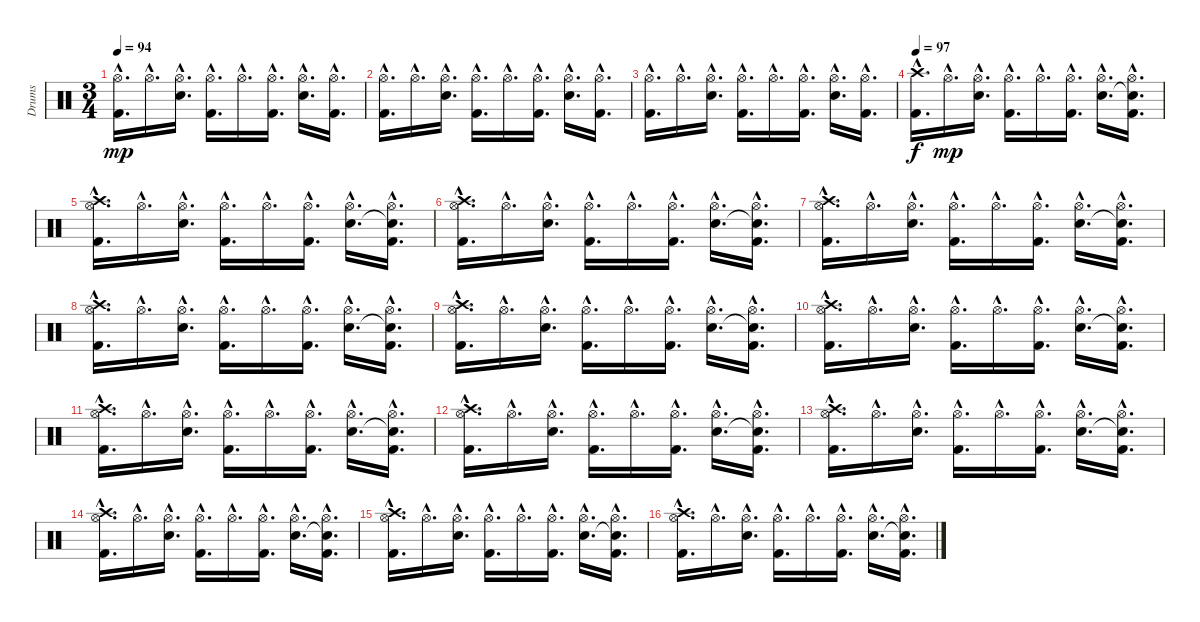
\track ("Drums" "Drums") {instrument percussion}
\staff {score}
\articulation defaults
\ts (3 4)
\tempo 94
\clef neutral
\ks c
("Hi-Hat (open)"{hac} "Kick (hit) 2"{hac}).16{d dy mp} "Hi-Hat (open)"{hac}.16{d} ("Hi-Hat (open)"{hac} "Electric Snare (hit)"{hac}).16{d} ("Hi-Hat (open)"{hac} "Kick (hit) 2"{hac}).16{d} "Hi-Hat (open)"{hac}.16{d} ("Hi-Hat (open)"{hac} "Kick (hit) 2"{hac}).16{d} ("Hi-Hat (open)"{hac} "Electric Snare (hit)"{hac}).16{d} ("Hi-Hat (open)"{hac} "Kick (hit) 2"{hac}).16{d} |
("Hi-Hat (open)"{hac} "Kick (hit) 2"{hac}).16{d} "Hi-Hat (open)"{hac}.16{d} ("Hi-Hat (open)"{hac} "Electric Snare (hit)"{hac}).16{d} ("Hi-Hat (open)"{hac} "Kick (hit) 2"{hac}).16{d} "Hi-Hat (open)"{hac}.16{d} ("Hi-Hat (open)"{hac} "Kick (hit) 2"{hac}).16{d} ("Hi-Hat (open)"{hac} "Electric Snare (hit)"{hac}).16{d} ("Hi-Hat (open)"{hac} "Kick (hit) 2"{hac}).16{d} |
("Hi-Hat (open)"{hac} "Kick (hit) 2"{hac}).16{d} "Hi-Hat (open)"{hac}.16{d} ("Hi-Hat (open)"{hac} "Electric Snare (hit)"{hac}).16{d} ("Hi-Hat (open)"{hac} "Kick (hit) 2"{hac}).16{d} "Hi-Hat (open)"{hac}.16{d} ("Hi-Hat (open)"{hac} "Kick (hit) 2"{hac}).16{d} ("Hi-Hat (open)"{hac} "Electric Snare (hit)"{hac}).16{d} ("Hi-Hat (open)"{hac} "Kick (hit) 2"{hac}).16{d} |
\tempo 97
("Crash high (hit)"{hac} "Kick (hit) 2"{hac}).16{d dy f} "Hi-Hat (open)"{hac}.16{d dy mp} ("Hi-Hat (open)"{hac} "Electric Snare (hit)"{hac}).16{d} ("Hi-Hat (open)"{hac} "Kick (hit) 2"{hac}).16{d} "Hi-Hat (open)"{hac}.16{d} ("Hi-Hat (open)"{hac} "Kick (hit) 2"{hac}).16{d} ("Hi-Hat (open)"{hac} "Electric Snare (hit)"{hac}).16{d} ("Hi-Hat (open)"{hac} "Snare (hit)"{hac t} "Kick (hit) 2"{hac}).16{d} |
("Hi-Hat (open)"{hac} "Crash high (hit)"{hac} "Kick (hit) 2"{hac}).16{d} "Hi-Hat (open)"{hac}.16{d} ("Hi-Hat (open)"{hac} "Electric Snare (hit)"{hac}).16{d} ("Hi-Hat (open)"{hac} "Kick (hit) 2"{hac}).16{d} "Hi-Hat (open)"{hac}.16{d} ("Hi-Hat (open)"{hac} "Kick (hit) 2"{hac}).16{d} ("Hi-Hat (open)"{hac} "Electric Snare (hit)"{hac}).16{d} ("Hi-Hat (open)"{hac} "Snare (hit)"{hac t} "Kick (hit) 2"{hac}).16{d} |
("Hi-Hat (open)"{hac} "Crash high (hit)"{hac} "Kick (hit) 2"{hac}).16{d} "Hi-Hat (open)"{hac}.16{d} ("Hi-Hat (open)"{hac} "Electric Snare (hit)"{hac}).16{d} ("Hi-Hat (open)"{hac} "Kick (hit) 2"{hac}).16{d} "Hi-Hat (open)"{hac}.16{d} ("Hi-Hat (open)"{hac} "Kick (hit) 2"{hac}).16{d} ("Hi-Hat (open)"{hac} "Electric Snare (hit)"{hac}).16{d} ("Hi-Hat (open)"{hac} "Snare (hit)"{hac t} "Kick (hit) 2"{hac}).16{d} |
("Hi-Hat (open)"{hac} "Crash high (hit)"{hac} "Kick (hit) 2"{hac}).16{d} "Hi-Hat (open)"{hac}.16{d} ("Hi-Hat (open)"{hac} "Electric Snare (hit)"{hac}).16{d} ("Hi-Hat (open)"{hac} "Kick (hit) 2"{hac}).16{d} "Hi-Hat (open)"{hac}.16{d} ("Hi-Hat (open)"{hac} "Kick (hit) 2"{hac}).16{d} ("Hi-Hat (open)"{hac} "Electric Snare (hit)"{hac}).16{d} ("Hi-Hat (open)"{hac} "Snare (hit)"{hac t} "Kick (hit) 2"{hac}).16{d} |
("Hi-Hat (open)"{hac} "Crash high (hit)"{hac} "Kick (hit) 2"{hac}).16{d} "Hi-Hat (open)"{hac}.16{d} ("Hi-Hat (open)"{hac} "Electric Snare (hit)"{hac}).16{d} ("Hi-Hat (open)"{hac} "Kick (hit) 2"{hac}).16{d} "Hi-Hat (open)"{hac}.16{d} ("Hi-Hat (open)"{hac} "Kick (hit) 2"{hac}).16{d} ("Hi-Hat (open)"{hac} "Electric Snare (hit)"{hac}).16{d} ("Hi-Hat (open)"{hac} "Snare (hit)"{hac t} "Kick (hit) 2"{hac}).16{d} |
("Hi-Hat (open)"{hac} "Crash high (hit)"{hac} "Kick (hit) 2"{hac}).16{d} "Hi-Hat (open)"{hac}.16{d} ("Hi-Hat (open)"{hac} "Electric Snare (hit)"{hac}).16{d} ("Hi-Hat (open)"{hac} "Kick (hit) 2"{hac}).16{d} "Hi-Hat (open)"{hac}.16{d} ("Hi-Hat (open)"{hac} "Kick (hit) 2"{hac}).16{d} ("Hi-Hat (open)"{hac} "Electric Snare (hit)"{hac}).16{d} ("Hi-Hat (open)"{hac} "Snare (hit)"{hac t} "Kick (hit) 2"{hac}).16{d} |
("Hi-Hat (open)"{hac} "Crash high (hit)"{hac} "Kick (hit) 2"{hac}).16{d} "Hi-Hat (open)"{hac}.16{d} ("Hi-Hat (open)"{hac} "Electric Snare (hit)"{hac}).16{d} ("Hi-Hat (open)"{hac} "Kick (hit) 2"{hac}).16{d} "Hi-Hat (open)"{hac}.16{d} ("Hi-Hat (open)"{hac} "Kick (hit) 2"{hac}).16{d} ("Hi-Hat (open)"{hac} "Electric Snare (hit)"{hac}).16{d} ("Hi-Hat (open)"{hac} "Snare (hit)"{hac t} "Kick (hit) 2"{hac}).16{d} |
("Hi-Hat (open)"{hac} "Crash high (hit)"{hac} "Kick (hit) 2"{hac}).16{d} "Hi-Hat (open)"{hac}.16{d} ("Hi-Hat (open)"{hac} "Electric Snare (hit)"{hac}).16{d} ("Hi-Hat (open)"{hac} "Kick (hit) 2"{hac}).16{d} "Hi-Hat (open)"{hac}.16{d} ("Hi-Hat (open)"{hac} "Kick (hit) 2"{hac}).16{d} ("Hi-Hat (open)"{hac} "Electric Snare (hit)"{hac}).16{d} ("Hi-Hat (open)"{hac} "Snare (hit)"{hac t} "Kick (hit) 2"{hac}).16{d} |
("Hi-Hat (open)"{hac} "Crash high (hit)"{hac} "Kick (hit) 2"{hac}).16{d} "Hi-Hat (open)"{hac}.16{d} ("Hi-Hat (open)"{hac} "Electric Snare (hit)"{hac}).16{d} ("Hi-Hat (open)"{hac} "Kick (hit) 2"{hac}).16{d} "Hi-Hat (open)"{hac}.16{d} ("Hi-Hat (open)"{hac} "Kick (hit) 2"{hac}).16{d} ("Hi-Hat (open)"{hac} "Electric Snare (hit)"{hac}).16{d} ("Hi-Hat (open)"{hac} "Snare (hit)"{hac t} "Kick (hit) 2"{hac}).16{d} |
("Hi-Hat (open)"{hac} "Crash high (hit)"{hac} "Kick (hit) 2"{hac}).16{d} "Hi-Hat (open)"{hac}.16{d} ("Hi-Hat (open)"{hac} "Electric Snare (hit)"{hac}).16{d} ("Hi-Hat (open)"{hac} "Kick (hit) 2"{hac}).16{d} "Hi-Hat (open)"{hac}.16{d} ("Hi-Hat (open)"{hac} "Kick (hit) 2"{hac}).16{d} ("Hi-Hat (open)"{hac} "Electric Snare (hit)"{hac}).16{d} ("Hi-Hat (open)"{hac} "Snare (hit)"{hac t} "Kick (hit) 2"{hac}).16{d} |
("Hi-Hat (open)"{hac} "Crash high (hit)"{hac} "Kick (hit) 2"{hac}).16{d} "Hi-Hat (open)"{hac}.16{d} ("Hi-Hat (open)"{hac} "Electric Snare (hit)"{hac}).16{d} ("Hi-Hat (open)"{hac} "Kick (hit) 2"{hac}).16{d} "Hi-Hat (open)"{hac}.16{d} ("Hi-Hat (open)"{hac} "Kick (hit) 2"{hac}).16{d} ("Hi-Hat (open)"{hac} "Electric Snare (hit)"{hac}).16{d} ("Hi-Hat (open)"{hac} "Snare (hit)"{hac t} "Kick (hit) 2"{hac}).16{d} |
("Hi-Hat (open)"{hac} "Crash high (hit)"{hac} "Kick (hit) 2"{hac}).16{d} "Hi-Hat (open)"{hac}.16{d} ("Hi-Hat (open)"{hac} "Electric Snare (hit)"{hac}).16{d} ("Hi-Hat (open)"{hac} "Kick (hit) 2"{hac}).16{d} "Hi-Hat (open)"{hac}.16{d} ("Hi-Hat (open)"{hac} "Kick (hit) 2"{hac}).16{d} ("Hi-Hat (open)"{hac} "Electric Snare (hit)"{hac}).16{d} ("Hi-Hat (open)"{hac} "Snare (hit)"{hac t} "Kick (hit) 2"{hac}).16{d} |
("Hi-Hat (open)"{hac} "Crash high (hit)"{hac} "Kick (hit) 2"{hac}).16{d} "Hi-Hat (open)"{hac}.16{d} ("Hi-Hat (open)"{hac} "Electric Snare (hit)"{hac}).16{d} ("Hi-Hat (open)"{hac} "Kick (hit) 2"{hac}).16{d} "Hi-Hat (open)"{hac}.16{d} ("Hi-Hat (open)"{hac} "Kick (hit) 2"{hac}).16{d} ("Hi-Hat (open)"{hac} "Electric Snare (hit)"{hac}).16{d} ("Hi-Hat (open)"{hac} "Snare (hit)"{hac t} "Kick (hit) 2"{hac}).16{d}
